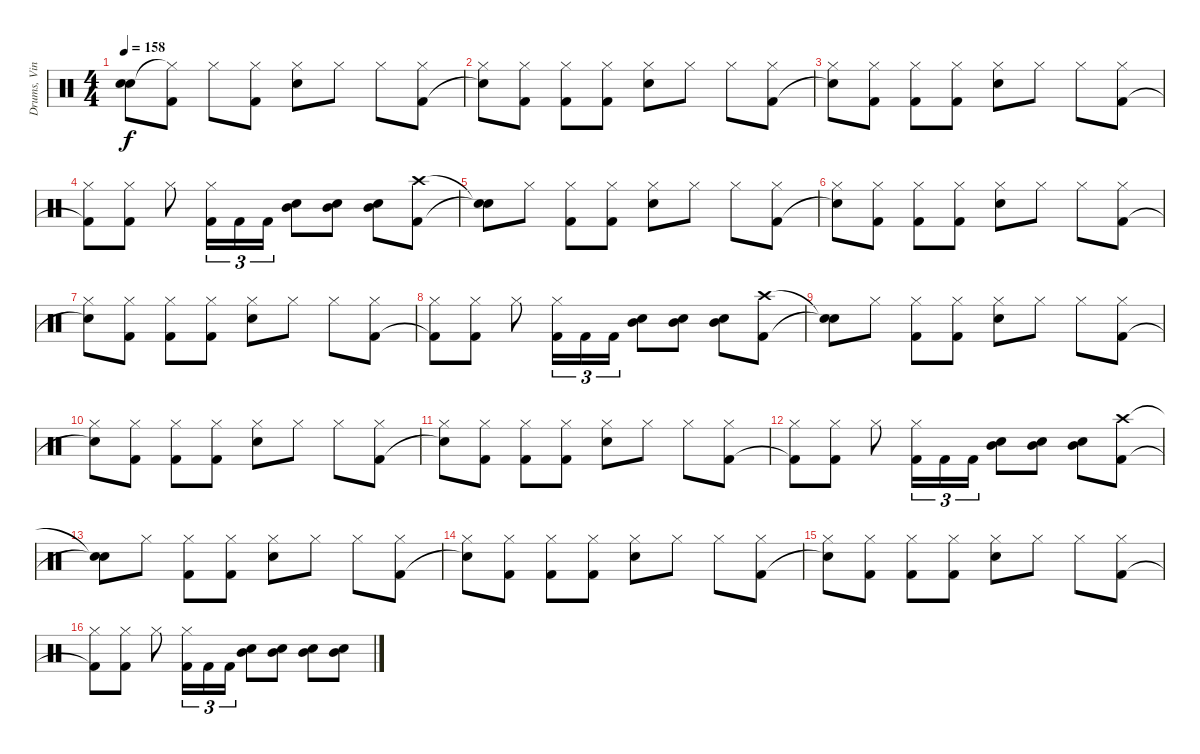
\track ("Drums, Vinnie" "Drums, Vin") {instrument percussion}
\staff {score}
\articulation defaults
\ts (4 4)
\tempo 158
\clef neutral
\ks c
("Snare (hit)"{t} "Snare (hit)"{t}).8{dy f} ("Hi-Hat (closed)"{t} "Kick (hit) 2").8 "Hi-Hat (closed)".8 ("Hi-Hat (closed)" "Kick (hit) 2").8 ("Hi-Hat (closed)" "Electric Snare (hit)").8 "Hi-Hat (closed)".8 "Hi-Hat (closed)".8 ("Hi-Hat (closed)" "Kick (hit) 2").8 |
("Hi-Hat (closed)" "Snare (hit)"{t}).8 ("Hi-Hat (closed)" "Kick (hit) 2").8 ("Hi-Hat (closed)" "Kick (hit) 2").8 ("Hi-Hat (closed)" "Kick (hit) 2").8 ("Hi-Hat (closed)" "Electric Snare (hit)").8 "Hi-Hat (closed)".8 "Hi-Hat (closed)".8 ("Hi-Hat (closed)" "Kick (hit) 2").8 |
("Hi-Hat (closed)" "Snare (hit)"{t}).8 ("Hi-Hat (closed)" "Kick (hit) 2").8 ("Hi-Hat (closed)" "Kick (hit) 2").8 ("Hi-Hat (closed)" "Kick (hit) 2").8 ("Hi-Hat (closed)" "Electric Snare (hit)").8 "Hi-Hat (closed)".8 "Hi-Hat (closed)".8 ("Hi-Hat (closed)" "Kick (hit) 2").8 |
("Hi-Hat (closed)" "Kick (hit) 2"{t}).8 ("Hi-Hat (closed)" "Kick (hit) 2").8 "Hi-Hat (closed)".8 ("Hi-Hat (closed)" "Kick (hit) 2").16{tu (3 2)} "Kick (hit) 2".16{tu (3 2)} "Kick (hit) 2".16{tu (3 2)} ("Electric Snare (hit)" "Mid Tom (hit)").8 ("Electric Snare (hit)" "Mid Tom (hit)").8 ("Electric Snare (hit)" "Mid Tom (hit)").8 ("Crash high (hit)" "Kick (hit) 2").8 |
("Snare (hit)"{t} "Snare (hit)"{t}).8 "Hi-Hat (closed)".8 ("Hi-Hat (closed)" "Kick (hit) 2").8 ("Hi-Hat (closed)" "Kick (hit) 2").8 ("Hi-Hat (closed)" "Electric Snare (hit)").8 "Hi-Hat (closed)".8 "Hi-Hat (closed)".8 ("Hi-Hat (closed)" "Kick (hit) 2").8 |
("Hi-Hat (closed)" "Snare (hit)"{t}).8 ("Hi-Hat (closed)" "Kick (hit) 2").8 ("Hi-Hat (closed)" "Kick (hit) 2").8 ("Hi-Hat (closed)" "Kick (hit) 2").8 ("Hi-Hat (closed)" "Electric Snare (hit)").8 "Hi-Hat (closed)".8 "Hi-Hat (closed)".8 ("Hi-Hat (closed)" "Kick (hit) 2").8 |
("Hi-Hat (closed)" "Snare (hit)"{t}).8 ("Hi-Hat (closed)" "Kick (hit) 2").8 ("Hi-Hat (closed)" "Kick (hit) 2").8 ("Hi-Hat (closed)" "Kick (hit) 2").8 ("Hi-Hat (closed)" "Electric Snare (hit)").8 "Hi-Hat (closed)".8 "Hi-Hat (closed)".8 ("Hi-Hat (closed)" "Kick (hit) 2").8 |
("Hi-Hat (closed)" "Kick (hit) 2"{t}).8 ("Hi-Hat (closed)" "Kick (hit) 2").8 "Hi-Hat (closed)".8 ("Hi-Hat (closed)" "Kick (hit) 2").16{tu (3 2)} "Kick (hit) 2".16{tu (3 2)} "Kick (hit) 2".16{tu (3 2)} ("Electric Snare (hit)" "Mid Tom (hit)").8 ("Electric Snare (hit)" "Mid Tom (hit)").8 ("Electric Snare (hit)" "Mid Tom (hit)").8 ("Crash high (hit)" "Kick (hit) 2").8 |
("Snare (hit)"{t} "Snare (hit)"{t}).8 "Hi-Hat (closed)".8 ("Hi-Hat (closed)" "Kick (hit) 2").8 ("Hi-Hat (closed)" "Kick (hit) 2").8 ("Hi-Hat (closed)" "Electric Snare (hit)").8 "Hi-Hat (closed)".8 "Hi-Hat (closed)".8 ("Hi-Hat (closed)" "Kick (hit) 2").8 |
("Hi-Hat (closed)" "Snare (hit)"{t}).8 ("Hi-Hat (closed)" "Kick (hit) 2").8 ("Hi-Hat (closed)" "Kick (hit) 2").8 ("Hi-Hat (closed)" "Kick (hit) 2").8 ("Hi-Hat (closed)" "Electric Snare (hit)").8 "Hi-Hat (closed)".8 "Hi-Hat (closed)".8 ("Hi-Hat (closed)" "Kick (hit) 2").8 |
("Hi-Hat (closed)" "Snare (hit)"{t}).8 ("Hi-Hat (closed)" "Kick (hit) 2").8 ("Hi-Hat (closed)" "Kick (hit) 2").8 ("Hi-Hat (closed)" "Kick (hit) 2").8 ("Hi-Hat (closed)" "Electric Snare (hit)").8 "Hi-Hat (closed)".8 "Hi-Hat (closed)".8 ("Hi-Hat (closed)" "Kick (hit) 2").8 |
("Hi-Hat (closed)" "Kick (hit) 2"{t}).8 ("Hi-Hat (closed)" "Kick (hit) 2").8 "Hi-Hat (closed)".8 ("Hi-Hat (closed)" "Kick (hit) 2").16{tu (3 2)} "Kick (hit) 2".16{tu (3 2)} "Kick (hit) 2".16{tu (3 2)} ("Electric Snare (hit)" "Mid Tom (hit)").8 ("Electric Snare (hit)" "Mid Tom (hit)").8 ("Electric Snare (hit)" "Mid Tom (hit)").8 ("Crash high (hit)" "Kick (hit) 2").8 |
("Snare (hit)"{t} "Snare (hit)"{t}).8 "Hi-Hat (closed)".8 ("Hi-Hat (closed)" "Kick (hit) 2").8 ("Hi-Hat (closed)" "Kick (hit) 2").8 ("Hi-Hat (closed)" "Electric Snare (hit)").8 "Hi-Hat (closed)".8 "Hi-Hat (closed)".8 ("Hi-Hat (closed)" "Kick (hit) 2").8 |
("Hi-Hat (closed)" "Snare (hit)"{t}).8 ("Hi-Hat (closed)" "Kick (hit) 2").8 ("Hi-Hat (closed)" "Kick (hit) 2").8 ("Hi-Hat (closed)" "Kick (hit) 2").8 ("Hi-Hat (closed)" "Electric Snare (hit)").8 "Hi-Hat (closed)".8 "Hi-Hat (closed)".8 ("Hi-Hat (closed)" "Kick (hit) 2").8 |
("Hi-Hat (closed)" "Snare (hit)"{t}).8 ("Hi-Hat (closed)" "Kick (hit) 2").8 ("Hi-Hat (closed)" "Kick (hit) 2").8 ("Hi-Hat (closed)" "Kick (hit) 2").8 ("Hi-Hat (closed)" "Electric Snare (hit)").8 "Hi-Hat (closed)".8 "Hi-Hat (closed)".8 ("Hi-Hat (closed)" "Kick (hit) 2").8 |
("Hi-Hat (closed)" "Kick (hit) 2"{t}).8 ("Hi-Hat (closed)" "Kick (hit) 2").8 "Hi-Hat (closed)".8 ("Hi-Hat (closed)" "Kick (hit) 2").16{tu (3 2)} "Kick (hit) 2".16{tu (3 2)} "Kick (hit) 2".16{tu (3 2)} ("Electric Snare (hit)" "Mid Tom (hit)").8 ("Electric Snare (hit)" "Mid Tom (hit)").8 ("Electric Snare (hit)" "Mid Tom (hit)").8 ("Electric Snare (hit)" "Mid Tom (hit)").8
